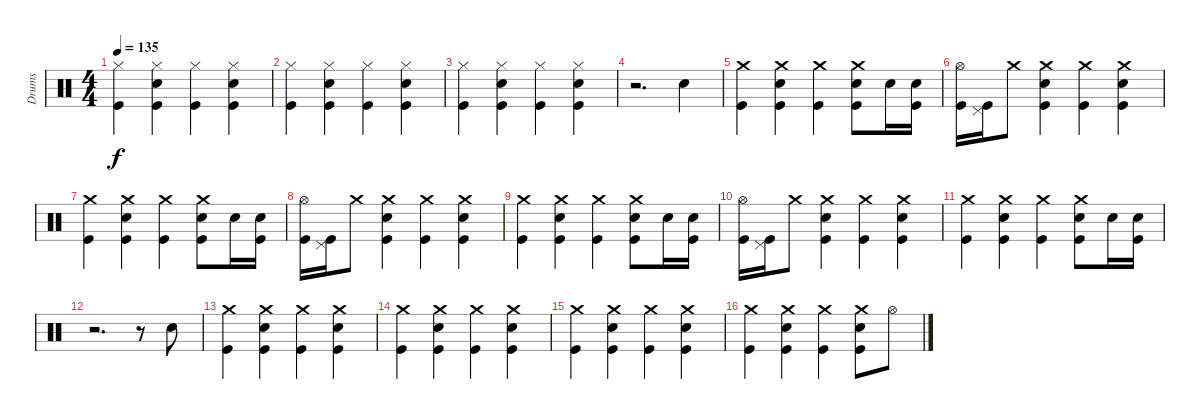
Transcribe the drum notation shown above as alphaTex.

\track ("Drums" "Drums") {instrument percussion}
\staff {score}
\articulation defaults
\ts (4 4)
\tempo 135
\clef neutral
\ks c
("Hi-Hat (closed)" "Kick (hit)").4{dy f} ("Hi-Hat (closed)" "Snare (hit) 2" "Kick (hit)").4 ("Hi-Hat (closed)" "Kick (hit)").4 ("Hi-Hat (closed)" "Snare (hit) 2" "Kick (hit)").4 |
("Hi-Hat (closed)" "Kick (hit)").4 ("Hi-Hat (closed)" "Snare (hit) 2" "Kick (hit)").4 ("Hi-Hat (closed)" "Kick (hit)").4 ("Hi-Hat (closed)" "Snare (hit) 2" "Kick (hit)").4 |
("Hi-Hat (closed)" "Kick (hit)").4 ("Hi-Hat (closed)" "Snare (hit) 2" "Kick (hit)").4 ("Hi-Hat (closed)" "Kick (hit)").4 ("Hi-Hat (closed)" "Snare (hit) 2" "Kick (hit)").4 |
r.2{d} "Snare (hit) 2".4 |
("Crash medium (hit)" "Kick (hit)").4 ("Crash medium (hit)" "Snare (hit) 2" "Kick (hit)").4 ("Crash medium (hit)" "Kick (hit)").4 ("Crash medium (hit)" "Snare (hit) 2" "Kick (hit)").8 "Snare (hit) 2".16 ("Snare (hit) 2" "Kick (hit)").16 |
("Hi-Hat (open)" "Kick (hit)").16 ("Pedal Hi-Hat (hit)" "Kick (hit)").16 "Crash medium (hit)".8 ("Crash medium (hit)" "Snare (hit) 2" "Kick (hit)").4 ("Crash medium (hit)" "Kick (hit)").4 ("Crash medium (hit)" "Snare (hit) 2" "Kick (hit)").4 |
("Crash medium (hit)" "Kick (hit)").4 ("Crash medium (hit)" "Snare (hit) 2" "Kick (hit)").4 ("Crash medium (hit)" "Kick (hit)").4 ("Crash medium (hit)" "Snare (hit) 2" "Kick (hit)").8 "Snare (hit) 2".16 ("Snare (hit) 2" "Kick (hit)").16 |
("Hi-Hat (open)" "Kick (hit)").16 ("Pedal Hi-Hat (hit)" "Kick (hit)").16 "Crash medium (hit)".8 ("Crash medium (hit)" "Snare (hit) 2" "Kick (hit)").4 ("Crash medium (hit)" "Kick (hit)").4 ("Crash medium (hit)" "Snare (hit) 2" "Kick (hit)").4 |
("Crash medium (hit)" "Kick (hit)").4 ("Crash medium (hit)" "Snare (hit) 2" "Kick (hit)").4 ("Crash medium (hit)" "Kick (hit)").4 ("Crash medium (hit)" "Snare (hit) 2" "Kick (hit)").8 "Snare (hit) 2".16 ("Snare (hit) 2" "Kick (hit)").16 |
("Hi-Hat (open)" "Kick (hit)").16 ("Pedal Hi-Hat (hit)" "Kick (hit)").16 "Crash medium (hit)".8 ("Crash medium (hit)" "Snare (hit) 2" "Kick (hit)").4 ("Crash medium (hit)" "Kick (hit)").4 ("Crash medium (hit)" "Snare (hit) 2" "Kick (hit)").4 |
("Crash medium (hit)" "Kick (hit)").4 ("Crash medium (hit)" "Snare (hit) 2" "Kick (hit)").4 ("Crash medium (hit)" "Kick (hit)").4 ("Crash medium (hit)" "Snare (hit) 2" "Kick (hit)").8 "Snare (hit) 2".16 ("Snare (hit) 2" "Kick (hit)").16 |
r.2{d} r.8 "Snare (hit) 2".8 |
("Crash medium (hit)" "Kick (hit)").4 ("Crash medium (hit)" "Snare (hit) 2" "Kick (hit)").4 ("Crash medium (hit)" "Kick (hit)").4 ("Crash medium (hit)" "Snare (hit) 2" "Kick (hit)").4 |
("Crash medium (hit)" "Kick (hit)").4 ("Crash medium (hit)" "Snare (hit) 2" "Kick (hit)").4 ("Crash medium (hit)" "Kick (hit)").4 ("Crash medium (hit)" "Snare (hit) 2" "Kick (hit)").4 |
("Crash medium (hit)" "Kick (hit)").4 ("Crash medium (hit)" "Snare (hit) 2" "Kick (hit)").4 ("Crash medium (hit)" "Kick (hit)").4 ("Crash medium (hit)" "Snare (hit) 2" "Kick (hit)").4 |
("Crash medium (hit)" "Kick (hit)").4 ("Crash medium (hit)" "Snare (hit) 2" "Kick (hit)").4 ("Crash medium (hit)" "Kick (hit)").4 ("Crash medium (hit)" "Snare (hit) 2" "Kick (hit)").8 "Hi-Hat (open)".8
